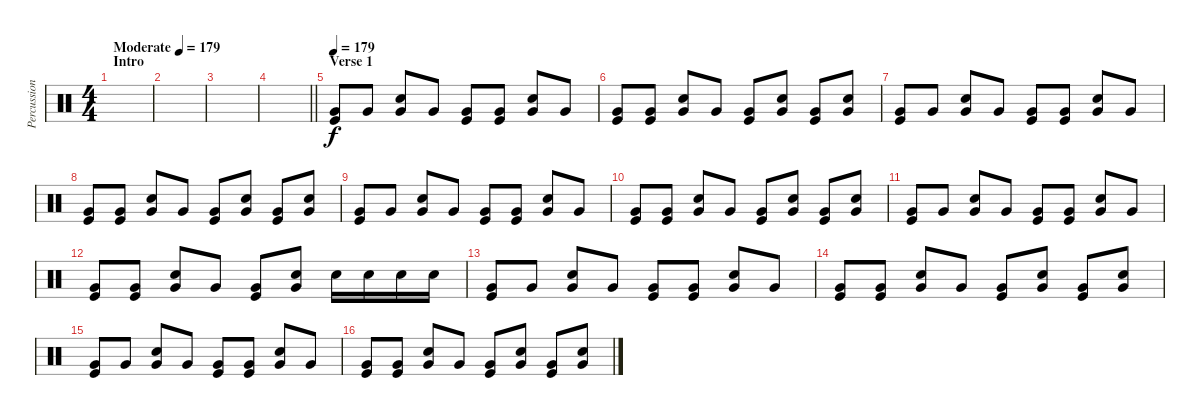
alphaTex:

\track ("Percussion" "Percussion") {instrument percussion}
\staff {score}
\articulation defaults
\ts (4 4)
\section ("" "Intro")
\tempo (179 "Moderate")
\tempo 70
\tempo (179 "Moderate")
\clef neutral
\ks c
|
|
|
\barLineRight lightlight
|
\section ("" "Verse 1")
\tempo 179
("Kick (hit)" "Very Low Tom (hit)").8 "Very Low Tom (hit)".8 ("Snare (hit) 2" "Very Low Tom (hit)").8 "Very Low Tom (hit)".8 ("Kick (hit)" "Very Low Tom (hit)").8 ("Kick (hit)" "Very Low Tom (hit)").8 ("Snare (hit) 2" "Very Low Tom (hit)").8 "Very Low Tom (hit)".8 |
("Kick (hit)" "Very Low Tom (hit)").8 ("Kick (hit)" "Very Low Tom (hit)").8 ("Snare (hit) 2" "Very Low Tom (hit)").8 "Very Low Tom (hit)".8 ("Kick (hit)" "Very Low Tom (hit)").8 ("Snare (hit) 2" "Very Low Tom (hit)").8 ("Kick (hit)" "Very Low Tom (hit)").8 ("Snare (hit) 2" "Very Low Tom (hit)").8 |
("Kick (hit)" "Very Low Tom (hit)").8 "Very Low Tom (hit)".8 ("Snare (hit) 2" "Very Low Tom (hit)").8 "Very Low Tom (hit)".8 ("Kick (hit)" "Very Low Tom (hit)").8 ("Kick (hit)" "Very Low Tom (hit)").8 ("Snare (hit) 2" "Very Low Tom (hit)").8 "Very Low Tom (hit)".8 |
("Kick (hit)" "Very Low Tom (hit)").8 ("Kick (hit)" "Very Low Tom (hit)").8 ("Snare (hit) 2" "Very Low Tom (hit)").8 "Very Low Tom (hit)".8 ("Kick (hit)" "Very Low Tom (hit)").8 ("Snare (hit) 2" "Very Low Tom (hit)").8 ("Kick (hit)" "Very Low Tom (hit)").8 ("Snare (hit) 2" "Very Low Tom (hit)").8 |
("Kick (hit)" "Very Low Tom (hit)").8 "Very Low Tom (hit)".8 ("Snare (hit) 2" "Very Low Tom (hit)").8 "Very Low Tom (hit)".8 ("Kick (hit)" "Very Low Tom (hit)").8 ("Kick (hit)" "Very Low Tom (hit)").8 ("Snare (hit) 2" "Very Low Tom (hit)").8 "Very Low Tom (hit)".8 |
("Kick (hit)" "Very Low Tom (hit)").8 ("Kick (hit)" "Very Low Tom (hit)").8 ("Snare (hit) 2" "Very Low Tom (hit)").8 "Very Low Tom (hit)".8 ("Kick (hit)" "Very Low Tom (hit)").8 ("Snare (hit) 2" "Very Low Tom (hit)").8 ("Kick (hit)" "Very Low Tom (hit)").8 ("Snare (hit) 2" "Very Low Tom (hit)").8 |
("Kick (hit)" "Very Low Tom (hit)").8 "Very Low Tom (hit)".8 ("Snare (hit) 2" "Very Low Tom (hit)").8 "Very Low Tom (hit)".8 ("Kick (hit)" "Very Low Tom (hit)").8 ("Kick (hit)" "Very Low Tom (hit)").8 ("Snare (hit) 2" "Very Low Tom (hit)").8 "Very Low Tom (hit)".8 |
("Kick (hit)" "Very Low Tom (hit)").8 ("Kick (hit)" "Very Low Tom (hit)").8 ("Snare (hit) 2" "Very Low Tom (hit)").8 "Very Low Tom (hit)".8 ("Kick (hit)" "Very Low Tom (hit)").8 ("Snare (hit) 2" "Very Low Tom (hit)").8 "Snare (hit) 2".16 "Snare (hit) 2".16 "Snare (hit) 2".16 "Snare (hit) 2".16 |
("Kick (hit)" "Very Low Tom (hit)").8 "Very Low Tom (hit)".8 ("Snare (hit) 2" "Very Low Tom (hit)").8 "Very Low Tom (hit)".8 ("Kick (hit)" "Very Low Tom (hit)").8 ("Kick (hit)" "Very Low Tom (hit)").8 ("Snare (hit) 2" "Very Low Tom (hit)").8 "Very Low Tom (hit)".8 |
("Kick (hit)" "Very Low Tom (hit)").8 ("Kick (hit)" "Very Low Tom (hit)").8 ("Snare (hit) 2" "Very Low Tom (hit)").8 "Very Low Tom (hit)".8 ("Kick (hit)" "Very Low Tom (hit)").8 ("Snare (hit) 2" "Very Low Tom (hit)").8 ("Kick (hit)" "Very Low Tom (hit)").8 ("Snare (hit) 2" "Very Low Tom (hit)").8 |
("Kick (hit)" "Very Low Tom (hit)").8 "Very Low Tom (hit)".8 ("Snare (hit) 2" "Very Low Tom (hit)").8 "Very Low Tom (hit)".8 ("Kick (hit)" "Very Low Tom (hit)").8 ("Kick (hit)" "Very Low Tom (hit)").8 ("Snare (hit) 2" "Very Low Tom (hit)").8 "Very Low Tom (hit)".8 |
("Kick (hit)" "Very Low Tom (hit)").8 ("Kick (hit)" "Very Low Tom (hit)").8 ("Snare (hit) 2" "Very Low Tom (hit)").8 "Very Low Tom (hit)".8 ("Kick (hit)" "Very Low Tom (hit)").8 ("Snare (hit) 2" "Very Low Tom (hit)").8 ("Kick (hit)" "Very Low Tom (hit)").8 ("Snare (hit) 2" "Very Low Tom (hit)").8
